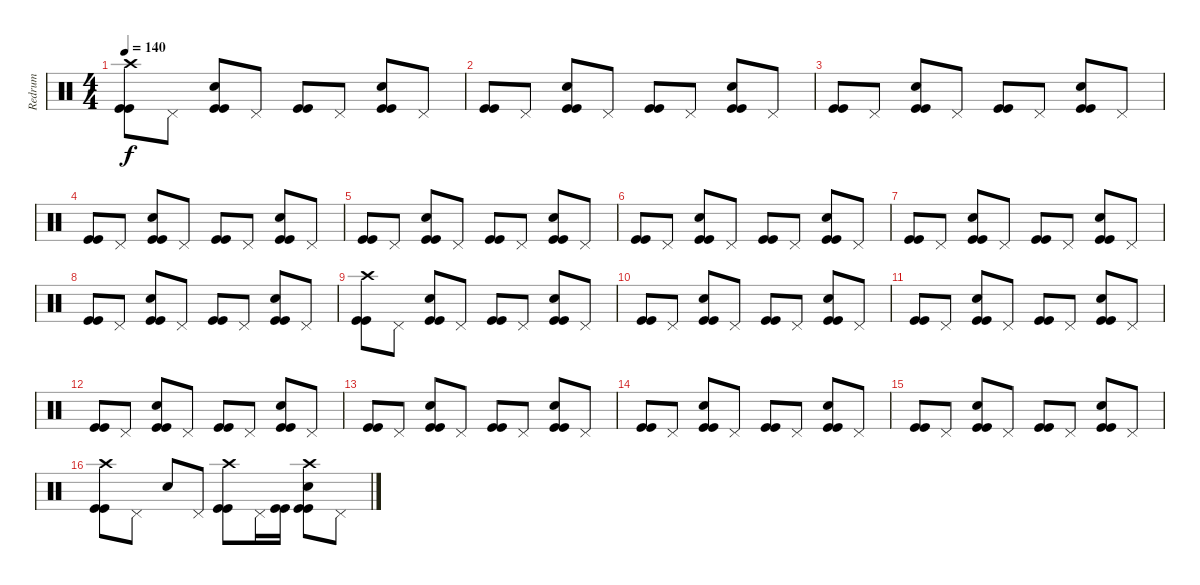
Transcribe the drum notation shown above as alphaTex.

\track ("Redrum" "Redrum") {instrument percussion}
\staff {score}
\articulation defaults
\ts (4 4)
\tempo 140
\clef neutral
\ks c
("Crash high (hit)" "Kick (hit)" "Kick (hit)").8{dy f} "Pedal Hi-Hat (hit)".8 ("Hand Clap (hit)" "Kick (hit)" "Kick (hit)").8 "Pedal Hi-Hat (hit)".8 ("Kick (hit)" "Kick (hit)").8 "Pedal Hi-Hat (hit)".8 ("Hand Clap (hit)" "Kick (hit)" "Kick (hit)").8 "Pedal Hi-Hat (hit)".8 |
("Kick (hit)" "Kick (hit)").8 "Pedal Hi-Hat (hit)".8 ("Hand Clap (hit)" "Kick (hit)" "Kick (hit)").8 "Pedal Hi-Hat (hit)".8 ("Kick (hit)" "Kick (hit)").8 "Pedal Hi-Hat (hit)".8 ("Hand Clap (hit)" "Kick (hit)" "Kick (hit)").8 "Pedal Hi-Hat (hit)".8 |
("Kick (hit)" "Kick (hit)").8 "Pedal Hi-Hat (hit)".8 ("Hand Clap (hit)" "Kick (hit)" "Kick (hit)").8 "Pedal Hi-Hat (hit)".8 ("Kick (hit)" "Kick (hit)").8 "Pedal Hi-Hat (hit)".8 ("Hand Clap (hit)" "Kick (hit)" "Kick (hit)").8 "Pedal Hi-Hat (hit)".8 |
("Kick (hit)" "Kick (hit)").8 "Pedal Hi-Hat (hit)".8 ("Hand Clap (hit)" "Kick (hit)" "Kick (hit)").8 "Pedal Hi-Hat (hit)".8 ("Kick (hit)" "Kick (hit)").8 "Pedal Hi-Hat (hit)".8 ("Hand Clap (hit)" "Kick (hit)" "Kick (hit)").8 "Pedal Hi-Hat (hit)".8 |
("Kick (hit)" "Kick (hit)").8 "Pedal Hi-Hat (hit)".8 ("Hand Clap (hit)" "Kick (hit)" "Kick (hit)").8 "Pedal Hi-Hat (hit)".8 ("Kick (hit)" "Kick (hit)").8 "Pedal Hi-Hat (hit)".8 ("Hand Clap (hit)" "Kick (hit)" "Kick (hit)").8 "Pedal Hi-Hat (hit)".8 |
("Kick (hit)" "Kick (hit)").8 "Pedal Hi-Hat (hit)".8 ("Hand Clap (hit)" "Kick (hit)" "Kick (hit)").8 "Pedal Hi-Hat (hit)".8 ("Kick (hit)" "Kick (hit)").8 "Pedal Hi-Hat (hit)".8 ("Hand Clap (hit)" "Kick (hit)" "Kick (hit)").8 "Pedal Hi-Hat (hit)".8 |
("Kick (hit)" "Kick (hit)").8 "Pedal Hi-Hat (hit)".8 ("Hand Clap (hit)" "Kick (hit)" "Kick (hit)").8 "Pedal Hi-Hat (hit)".8 ("Kick (hit)" "Kick (hit)").8 "Pedal Hi-Hat (hit)".8 ("Hand Clap (hit)" "Kick (hit)" "Kick (hit)").8 "Pedal Hi-Hat (hit)".8 |
("Kick (hit)" "Kick (hit)").8 "Pedal Hi-Hat (hit)".8 ("Hand Clap (hit)" "Kick (hit)" "Kick (hit)").8 "Pedal Hi-Hat (hit)".8 ("Kick (hit)" "Kick (hit)").8 "Pedal Hi-Hat (hit)".8 ("Hand Clap (hit)" "Kick (hit)" "Kick (hit)").8 "Pedal Hi-Hat (hit)".8 |
("Crash high (hit)" "Kick (hit)" "Kick (hit)").8 "Pedal Hi-Hat (hit)".8 ("Hand Clap (hit)" "Kick (hit)" "Kick (hit)").8 "Pedal Hi-Hat (hit)".8 ("Kick (hit)" "Kick (hit)").8 "Pedal Hi-Hat (hit)".8 ("Hand Clap (hit)" "Kick (hit)" "Kick (hit)").8 "Pedal Hi-Hat (hit)".8 |
("Kick (hit)" "Kick (hit)").8 "Pedal Hi-Hat (hit)".8 ("Hand Clap (hit)" "Kick (hit)" "Kick (hit)").8 "Pedal Hi-Hat (hit)".8 ("Kick (hit)" "Kick (hit)").8 "Pedal Hi-Hat (hit)".8 ("Hand Clap (hit)" "Kick (hit)" "Kick (hit)").8 "Pedal Hi-Hat (hit)".8 |
("Kick (hit)" "Kick (hit)").8 "Pedal Hi-Hat (hit)".8 ("Hand Clap (hit)" "Kick (hit)" "Kick (hit)").8 "Pedal Hi-Hat (hit)".8 ("Kick (hit)" "Kick (hit)").8 "Pedal Hi-Hat (hit)".8 ("Hand Clap (hit)" "Kick (hit)" "Kick (hit)").8 "Pedal Hi-Hat (hit)".8 |
("Kick (hit)" "Kick (hit)").8 "Pedal Hi-Hat (hit)".8 ("Hand Clap (hit)" "Kick (hit)" "Kick (hit)").8 "Pedal Hi-Hat (hit)".8 ("Kick (hit)" "Kick (hit)").8 "Pedal Hi-Hat (hit)".8 ("Hand Clap (hit)" "Kick (hit)" "Kick (hit)").8 "Pedal Hi-Hat (hit)".8 |
("Kick (hit)" "Kick (hit)").8 "Pedal Hi-Hat (hit)".8 ("Hand Clap (hit)" "Kick (hit)" "Kick (hit)").8 "Pedal Hi-Hat (hit)".8 ("Kick (hit)" "Kick (hit)").8 "Pedal Hi-Hat (hit)".8 ("Hand Clap (hit)" "Kick (hit)" "Kick (hit)").8 "Pedal Hi-Hat (hit)".8 |
("Kick (hit)" "Kick (hit)").8 "Pedal Hi-Hat (hit)".8 ("Hand Clap (hit)" "Kick (hit)" "Kick (hit)").8 "Pedal Hi-Hat (hit)".8 ("Kick (hit)" "Kick (hit)").8 "Pedal Hi-Hat (hit)".8 ("Hand Clap (hit)" "Kick (hit)" "Kick (hit)").8 "Pedal Hi-Hat (hit)".8 |
("Kick (hit)" "Kick (hit)").8 "Pedal Hi-Hat (hit)".8 ("Hand Clap (hit)" "Kick (hit)" "Kick (hit)").8 "Pedal Hi-Hat (hit)".8 ("Kick (hit)" "Kick (hit)").8 "Pedal Hi-Hat (hit)".8 ("Hand Clap (hit)" "Kick (hit)" "Kick (hit)").8 "Pedal Hi-Hat (hit)".8 |
("Crash high (hit)" "Kick (hit)" "Kick (hit)").8 "Pedal Hi-Hat (hit)".8 "Hand Clap (hit)".8 "Pedal Hi-Hat (hit)".8 ("Crash high (hit)" "Kick (hit)" "Kick (hit)").8 "Pedal Hi-Hat (hit)".16 ("Kick (hit)" "Kick (hit)").16 ("Crash high (hit)" "Hand Clap (hit)" "Kick (hit)" "Kick (hit)").8 "Pedal Hi-Hat (hit)".8
